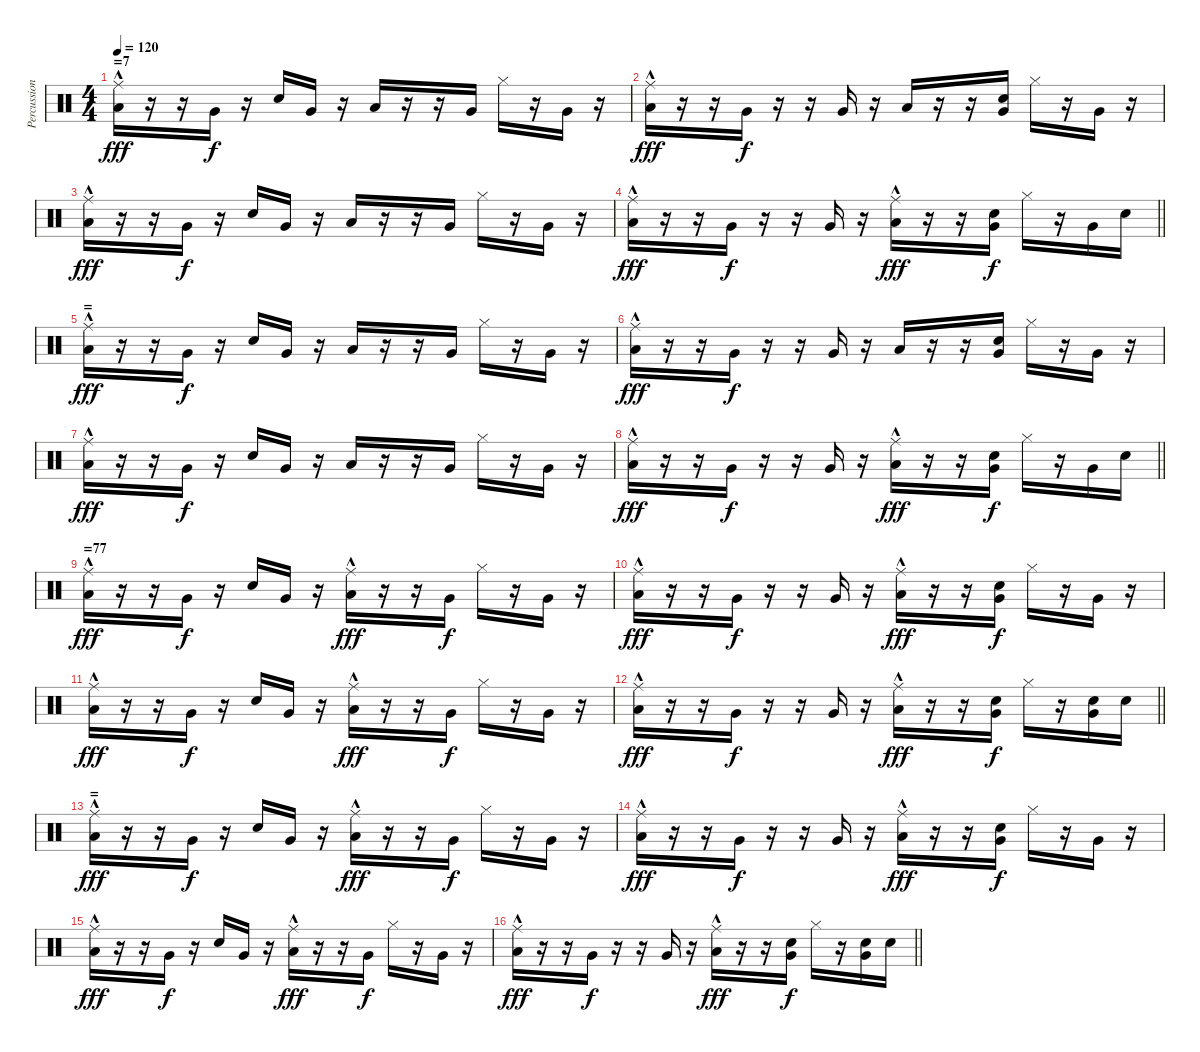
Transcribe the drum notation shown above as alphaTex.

\track ("Percussion" "Percussion") {instrument percussion}
\staff {score}
\articulation defaults
\ts (4 4)
\section ("" "=7")
\tempo 120
\clef neutral
\ks c
("Low Floor Tom (hit)" "Ride (middle)"{hac}).16{dy fff} r.16 r.16 "Very Low Tom (hit)".16{dy f} r.16 "Electric Snare (hit)".16 "Very Low Tom (hit)".16 r.16 "Low Floor Tom (hit)".16 r.16 r.16 "Very Low Tom (hit)".16 "Hi-Hat (closed)".16 r.16 "Very Low Tom (hit)".16 r.16 |
("Low Floor Tom (hit)" "Ride (middle)"{hac}).16{dy fff} r.16 r.16 "Very Low Tom (hit)".16{dy f} r.16 r.16 "Very Low Tom (hit)".16 r.16 "Low Floor Tom (hit)".16 r.16 r.16 ("Very Low Tom (hit)" "Electric Snare (hit)").16 "Hi-Hat (closed)".16 r.16 "Very Low Tom (hit)".16 r.16 |
("Low Floor Tom (hit)" "Ride (middle)"{hac}).16{dy fff} r.16 r.16 "Very Low Tom (hit)".16{dy f} r.16 "Electric Snare (hit)".16 "Very Low Tom (hit)".16 r.16 "Low Floor Tom (hit)".16 r.16 r.16 "Very Low Tom (hit)".16 "Hi-Hat (closed)".16 r.16 "Very Low Tom (hit)".16 r.16 |
\barLineRight lightlight
("Low Floor Tom (hit)" "Ride (middle)"{hac}).16{dy fff} r.16 r.16 "Very Low Tom (hit)".16{dy f} r.16 r.16 "Very Low Tom (hit)".16 r.16 ("Low Floor Tom (hit)" "Ride (middle)"{hac}).16{dy fff} r.16 r.16 ("Very Low Tom (hit)" "Electric Snare (hit)").16{dy f} "Hi-Hat (closed)".16 r.16 "Very Low Tom (hit)".16 "Electric Snare (hit)".16 |
\section ("" "=")
("Low Floor Tom (hit)" "Ride (middle)"{hac}).16{dy fff} r.16 r.16 "Very Low Tom (hit)".16{dy f} r.16 "Electric Snare (hit)".16 "Very Low Tom (hit)".16 r.16 "Low Floor Tom (hit)".16 r.16 r.16 "Very Low Tom (hit)".16 "Hi-Hat (closed)".16 r.16 "Very Low Tom (hit)".16 r.16 |
("Low Floor Tom (hit)" "Ride (middle)"{hac}).16{dy fff} r.16 r.16 "Very Low Tom (hit)".16{dy f} r.16 r.16 "Very Low Tom (hit)".16 r.16 "Low Floor Tom (hit)".16 r.16 r.16 ("Very Low Tom (hit)" "Electric Snare (hit)").16 "Hi-Hat (closed)".16 r.16 "Very Low Tom (hit)".16 r.16 |
("Low Floor Tom (hit)" "Ride (middle)"{hac}).16{dy fff} r.16 r.16 "Very Low Tom (hit)".16{dy f} r.16 "Electric Snare (hit)".16 "Very Low Tom (hit)".16 r.16 "Low Floor Tom (hit)".16 r.16 r.16 "Very Low Tom (hit)".16 "Hi-Hat (closed)".16 r.16 "Very Low Tom (hit)".16 r.16 |
\barLineRight lightlight
("Low Floor Tom (hit)" "Ride (middle)"{hac}).16{dy fff} r.16 r.16 "Very Low Tom (hit)".16{dy f} r.16 r.16 "Very Low Tom (hit)".16 r.16 ("Low Floor Tom (hit)" "Ride (middle)"{hac}).16{dy fff} r.16 r.16 ("Very Low Tom (hit)" "Electric Snare (hit)").16{dy f} "Hi-Hat (closed)".16 r.16 "Very Low Tom (hit)".16 "Electric Snare (hit)".16 |
\section ("" "=77")
("Low Floor Tom (hit)" "Ride (middle)"{hac}).16{dy fff} r.16 r.16 "Very Low Tom (hit)".16{dy f} r.16 "Electric Snare (hit)".16 "Very Low Tom (hit)".16 r.16 ("Low Floor Tom (hit)" "Ride (middle)"{hac}).16{dy fff} r.16 r.16 "Very Low Tom (hit)".16{dy f} "Hi-Hat (closed)".16 r.16 "Very Low Tom (hit)".16 r.16 |
("Low Floor Tom (hit)" "Ride (middle)"{hac}).16{dy fff} r.16 r.16 "Very Low Tom (hit)".16{dy f} r.16 r.16 "Very Low Tom (hit)".16 r.16 ("Low Floor Tom (hit)" "Ride (middle)"{hac}).16{dy fff} r.16 r.16 ("Very Low Tom (hit)" "Electric Snare (hit)").16{dy f} "Hi-Hat (closed)".16 r.16 "Very Low Tom (hit)".16 r.16 |
("Low Floor Tom (hit)" "Ride (middle)"{hac}).16{dy fff} r.16 r.16 "Very Low Tom (hit)".16{dy f} r.16 "Electric Snare (hit)".16 "Very Low Tom (hit)".16 r.16 ("Low Floor Tom (hit)" "Ride (middle)"{hac}).16{dy fff} r.16 r.16 "Very Low Tom (hit)".16{dy f} "Hi-Hat (closed)".16 r.16 "Very Low Tom (hit)".16 r.16 |
\barLineRight lightlight
("Low Floor Tom (hit)" "Ride (middle)"{hac}).16{dy fff} r.16 r.16 "Very Low Tom (hit)".16{dy f} r.16 r.16 "Very Low Tom (hit)".16 r.16 ("Low Floor Tom (hit)" "Ride (middle)"{hac}).16{dy fff} r.16 r.16 ("Very Low Tom (hit)" "Electric Snare (hit)").16{dy f} "Hi-Hat (closed)".16 r.16 ("Very Low Tom (hit)" "Electric Snare (hit)").16 "Electric Snare (hit)".16 |
\section ("" "=")
("Low Floor Tom (hit)" "Ride (middle)"{hac}).16{dy fff} r.16 r.16 "Very Low Tom (hit)".16{dy f} r.16 "Electric Snare (hit)".16 "Very Low Tom (hit)".16 r.16 ("Low Floor Tom (hit)" "Ride (middle)"{hac}).16{dy fff} r.16 r.16 "Very Low Tom (hit)".16{dy f} "Hi-Hat (closed)".16 r.16 "Very Low Tom (hit)".16 r.16 |
("Low Floor Tom (hit)" "Ride (middle)"{hac}).16{dy fff} r.16 r.16 "Very Low Tom (hit)".16{dy f} r.16 r.16 "Very Low Tom (hit)".16 r.16 ("Low Floor Tom (hit)" "Ride (middle)"{hac}).16{dy fff} r.16 r.16 ("Very Low Tom (hit)" "Electric Snare (hit)").16{dy f} "Hi-Hat (closed)".16 r.16 "Very Low Tom (hit)".16 r.16 |
("Low Floor Tom (hit)" "Ride (middle)"{hac}).16{dy fff} r.16 r.16 "Very Low Tom (hit)".16{dy f} r.16 "Electric Snare (hit)".16 "Very Low Tom (hit)".16 r.16 ("Low Floor Tom (hit)" "Ride (middle)"{hac}).16{dy fff} r.16 r.16 "Very Low Tom (hit)".16{dy f} "Hi-Hat (closed)".16 r.16 "Very Low Tom (hit)".16 r.16 |
\barLineRight lightlight
("Low Floor Tom (hit)" "Ride (middle)"{hac}).16{dy fff} r.16 r.16 "Very Low Tom (hit)".16{dy f} r.16 r.16 "Very Low Tom (hit)".16 r.16 ("Low Floor Tom (hit)" "Ride (middle)"{hac}).16{dy fff} r.16 r.16 ("Very Low Tom (hit)" "Electric Snare (hit)").16{dy f} "Hi-Hat (closed)".16 r.16 ("Very Low Tom (hit)" "Electric Snare (hit)").16 "Electric Snare (hit)".16
